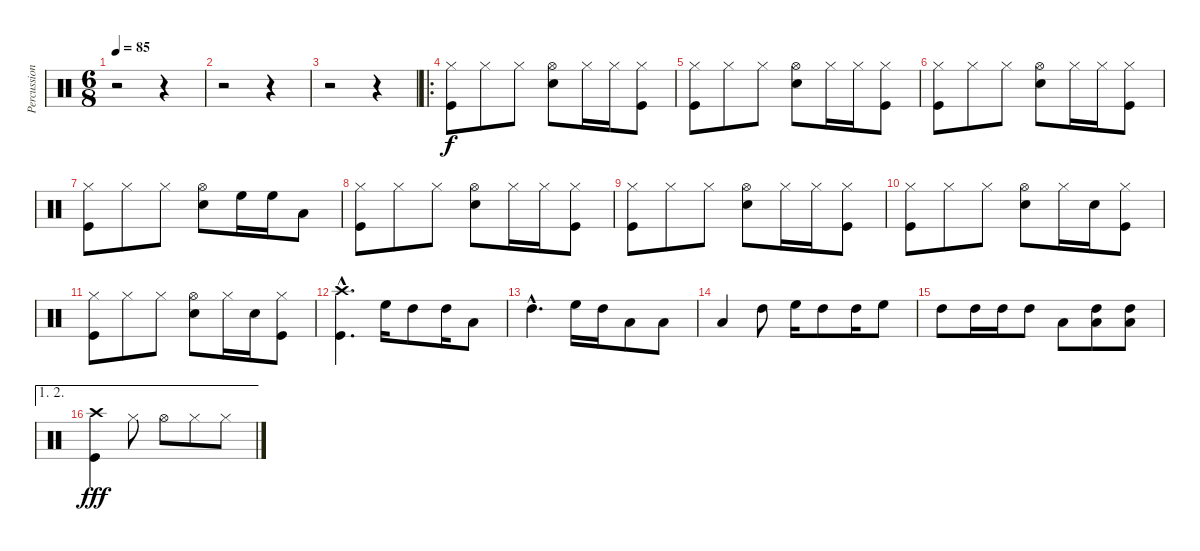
\track ("Percussion" "Percussion") {instrument percussion}
\staff {score}
\articulation defaults
\ts (6 8)
\tempo 85
\clef neutral
\ks c
r.2{dy f} r.4 |
r.2 r.4 |
r.2 r.4 |
\ro
("Hi-Hat (closed)" "Kick (hit)").8 "Hi-Hat (closed)".8 "Hi-Hat (closed)".8 ("Hi-Hat (open)" "Snare (hit) 2").8 "Hi-Hat (closed)".16 "Hi-Hat (closed)".16 ("Hi-Hat (closed)" "Kick (hit)").8 |
("Hi-Hat (closed)" "Kick (hit)").8 "Hi-Hat (closed)".8 "Hi-Hat (closed)".8 ("Hi-Hat (open)" "Snare (hit) 2").8 "Hi-Hat (closed)".16 "Hi-Hat (closed)".16 ("Hi-Hat (closed)" "Kick (hit)").8 |
("Hi-Hat (closed)" "Kick (hit)").8 "Hi-Hat (closed)".8 "Hi-Hat (closed)".8 ("Hi-Hat (open)" "Snare (hit) 2").8 "Hi-Hat (closed)".16 "Hi-Hat (closed)".16 ("Hi-Hat (closed)" "Kick (hit)").8 |
("Hi-Hat (closed)" "Kick (hit)").8 "Hi-Hat (closed)".8 "Hi-Hat (closed)".8 ("Hi-Hat (open)" "Snare (hit) 2").8 "High Floor Tom (hit)".16 "High Floor Tom (hit)".16 "Low Tom (hit)".8 |
("Hi-Hat (closed)" "Kick (hit)").8 "Hi-Hat (closed)".8 "Hi-Hat (closed)".8 ("Hi-Hat (open)" "Snare (hit) 2").8 "Hi-Hat (closed)".16 "Hi-Hat (closed)".16 ("Hi-Hat (closed)" "Kick (hit)").8 |
("Hi-Hat (closed)" "Kick (hit)").8 "Hi-Hat (closed)".8 "Hi-Hat (closed)".8 ("Hi-Hat (open)" "Snare (hit) 2").8 "Hi-Hat (closed)".16 "Hi-Hat (closed)".16 ("Hi-Hat (closed)" "Kick (hit)").8 |
("Hi-Hat (closed)" "Kick (hit)").8 "Hi-Hat (closed)".8 "Hi-Hat (closed)".8 ("Hi-Hat (open)" "Snare (hit) 2").8 "Hi-Hat (closed)".16 "Snare (hit) 2".16 ("Hi-Hat (closed)" "Kick (hit)").8 |
("Hi-Hat (closed)" "Kick (hit)").8 "Hi-Hat (closed)".8 "Hi-Hat (closed)".8 ("Hi-Hat (open)" "Snare (hit) 2").8 "Hi-Hat (closed)".16 "Snare (hit) 2".16 ("Hi-Hat (closed)" "Kick (hit)").8 |
("Crash high (hit)"{hac} "Kick (hit)"{hac}).4{d} "High Floor Tom (hit)".16 "High Tom (hit)".8 "High Tom (hit)".16 "Low Tom (hit)".8 |
"High Tom (hit)"{hac}.4{d} "High Floor Tom (hit)".16 "High Tom (hit)".16 "Low Tom (hit)".8 "Low Tom (hit)".8 |
"Low Tom (hit)".4 "High Tom (hit)".8 "High Floor Tom (hit)".16 "High Tom (hit)".8 "High Tom (hit)".16 "High Floor Tom (hit)".8 |
"High Tom (hit)".8 "High Tom (hit)".16 "High Tom (hit)".16 "High Tom (hit)".8 "Low Tom (hit)".8 ("High Tom (hit)" "Low Tom (hit)").8 ("High Tom (hit)" "Low Tom (hit)").8 |
\ae (1 2)
("Crash high (hit)" "Kick (hit)").4{dy fff} "Hi-Hat (closed)".8 "Hi-Hat (open)".8 "Hi-Hat (closed)".8 "Hi-Hat (closed)".8
